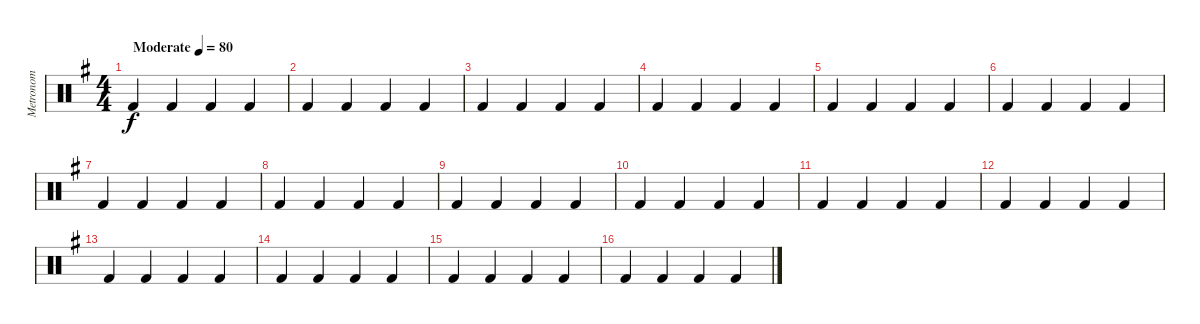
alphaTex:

\track ("Metronom" "Metronom") {instrument percussion}
\staff {score}
\articulation defaults
\ts (4 4)
\tempo (80 "Moderate")
\clef neutral
\ks g "Kick (hit) 2".4{dy f} "Kick (hit) 2".4 "Kick (hit) 2".4 "Kick (hit) 2".4
|
"Kick (hit) 2".4 "Kick (hit) 2".4 "Kick (hit) 2".4 "Kick (hit) 2".4 |
"Kick (hit) 2".4 "Kick (hit) 2".4 "Kick (hit) 2".4 "Kick (hit) 2".4 |
"Kick (hit) 2".4 "Kick (hit) 2".4 "Kick (hit) 2".4 "Kick (hit) 2".4 |
"Kick (hit) 2".4 "Kick (hit) 2".4 "Kick (hit) 2".4 "Kick (hit) 2".4 |
"Kick (hit) 2".4 "Kick (hit) 2".4 "Kick (hit) 2".4 "Kick (hit) 2".4 |
"Kick (hit) 2".4 "Kick (hit) 2".4 "Kick (hit) 2".4 "Kick (hit) 2".4 |
"Kick (hit) 2".4 "Kick (hit) 2".4 "Kick (hit) 2".4 "Kick (hit) 2".4 |
"Kick (hit) 2".4 "Kick (hit) 2".4 "Kick (hit) 2".4 "Kick (hit) 2".4 |
"Kick (hit) 2".4 "Kick (hit) 2".4 "Kick (hit) 2".4 "Kick (hit) 2".4 |
"Kick (hit) 2".4 "Kick (hit) 2".4 "Kick (hit) 2".4 "Kick (hit) 2".4 |
"Kick (hit) 2".4 "Kick (hit) 2".4 "Kick (hit) 2".4 "Kick (hit) 2".4 |
"Kick (hit) 2".4 "Kick (hit) 2".4 "Kick (hit) 2".4 "Kick (hit) 2".4 |
"Kick (hit) 2".4 "Kick (hit) 2".4 "Kick (hit) 2".4 "Kick (hit) 2".4 |
"Kick (hit) 2".4 "Kick (hit) 2".4 "Kick (hit) 2".4 "Kick (hit) 2".4 |
"Kick (hit) 2".4 "Kick (hit) 2".4 "Kick (hit) 2".4 "Kick (hit) 2".4
